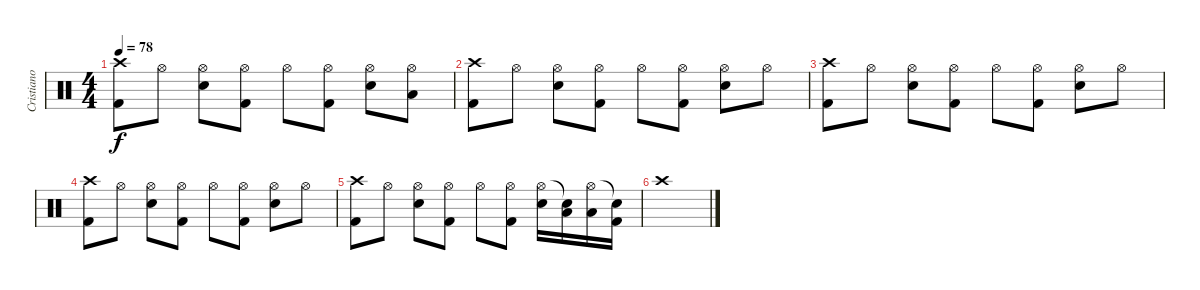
\track ("Cristiano Mozzati" "Cristiano ") {instrument percussion}
\staff {score}
\articulation defaults
\ts (4 4)
\tempo 78
\clef neutral
\ks c
("Crash high (hit)" "Kick (hit) 2").8{dy f} "Hi-Hat (open)".8 ("Hi-Hat (open)" "Electric Snare (hit)").8 ("Hi-Hat (open)" "Kick (hit) 2").8 "Hi-Hat (open)".8 ("Hi-Hat (open)" "Kick (hit) 2").8 ("Hi-Hat (open)" "Electric Snare (hit)").8 ("Hi-Hat (open)" "Low Tom (hit)").8 |
("Crash high (hit)" "Kick (hit) 2").8 "Hi-Hat (open)".8 ("Hi-Hat (open)" "Electric Snare (hit)").8 ("Hi-Hat (open)" "Kick (hit) 2").8 "Hi-Hat (open)".8 ("Hi-Hat (open)" "Kick (hit) 2").8 ("Hi-Hat (open)" "Electric Snare (hit)").8 "Hi-Hat (open)".8 |
("Crash high (hit)" "Kick (hit) 2").8 "Hi-Hat (open)".8 ("Hi-Hat (open)" "Electric Snare (hit)").8 ("Hi-Hat (open)" "Kick (hit) 2").8 "Hi-Hat (open)".8 ("Hi-Hat (open)" "Kick (hit) 2").8 ("Hi-Hat (open)" "Electric Snare (hit)").8 "Hi-Hat (open)".8 |
("Crash high (hit)" "Kick (hit) 2").8 "Hi-Hat (open)".8 ("Hi-Hat (open)" "Electric Snare (hit)").8 ("Hi-Hat (open)" "Kick (hit) 2").8 "Hi-Hat (open)".8 ("Hi-Hat (open)" "Kick (hit) 2").8 ("Hi-Hat (open)" "Electric Snare (hit)").8 "Hi-Hat (open)".8 |
("Crash high (hit)" "Kick (hit) 2").8 "Hi-Hat (open)".8 ("Hi-Hat (open)" "Electric Snare (hit)").8 ("Hi-Hat (open)" "Kick (hit) 2").8 "Hi-Hat (open)".8 ("Hi-Hat (open)" "Kick (hit) 2").8 ("Hi-Hat (open)" "Electric Snare (hit)").16 ("Snare (hit)"{t} "Low Tom (hit)").16 ("Hi-Hat (open)" "Low Floor Tom (hit)").16 ("Snare (hit)"{t} "Kick (hit) 2").16 |
"Crash high (hit)".1
